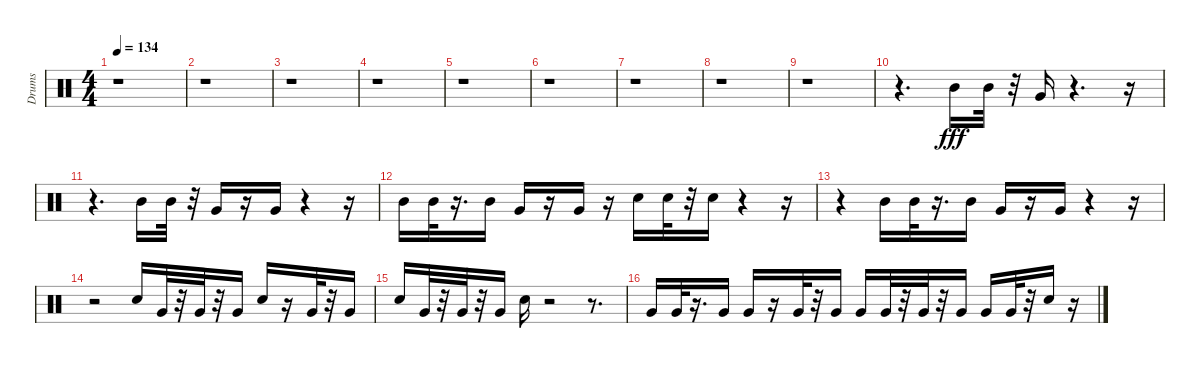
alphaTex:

\track ("Drums" "Drums") {instrument percussion}
\staff {score}
\articulation defaults
\ts (4 4)
\tempo 134
\clef neutral
\ks c
r.1{dy fff} |
r.1 |
r.1 |
r.1 |
r.1 |
r.1 |
r.1 |
r.1 |
r.1 |
r.4{d} "Mid Tom (hit)".16 "Mid Tom (hit)".32 r.32 "Very Low Tom (hit)".16 r.4{d} r.16 |
r.4{d} "Mid Tom (hit)".16 "Mid Tom (hit)".32 r.32 "Very Low Tom (hit)".16 r.16 "Very Low Tom (hit)".16 r.4 r.16 |
"Mid Tom (hit)".16 "Mid Tom (hit)".32 r.16{d} "Mid Tom (hit)".16 "Very Low Tom (hit)".16 r.16 "Very Low Tom (hit)".16 r.16 "Snare (hit) 2".16 "Snare (hit) 2".32 r.32 "Snare (hit) 2".16 r.4 r.16 |
r.4 "Mid Tom (hit)".16 "Mid Tom (hit)".32 r.16{d} "Mid Tom (hit)".16 "Very Low Tom (hit)".16 r.16 "Very Low Tom (hit)".16 r.4 r.16 |
r.2 "Snare (hit) 2".16 "Very Low Tom (hit)".32 r.32 "Very Low Tom (hit)".32 r.32 "Very Low Tom (hit)".16 "Snare (hit) 2".16 r.16 "Very Low Tom (hit)".32 r.32 "Very Low Tom (hit)".16 |
"Snare (hit) 2".16 "Very Low Tom (hit)".32 r.32 "Very Low Tom (hit)".32 r.32 "Very Low Tom (hit)".16 "Snare (hit) 2".16 r.2 r.8{d} |
"Very Low Tom (hit)".16 "Very Low Tom (hit)".32 r.16{d} "Very Low Tom (hit)".16 "Very Low Tom (hit)".16 r.16 "Very Low Tom (hit)".32 r.32 "Very Low Tom (hit)".16 "Very Low Tom (hit)".16 "Very Low Tom (hit)".32 r.32 "Very Low Tom (hit)".32 r.32 "Very Low Tom (hit)".16 "Very Low Tom (hit)".16 "Very Low Tom (hit)".32 r.32 "Snare (hit) 2".16 r.16
